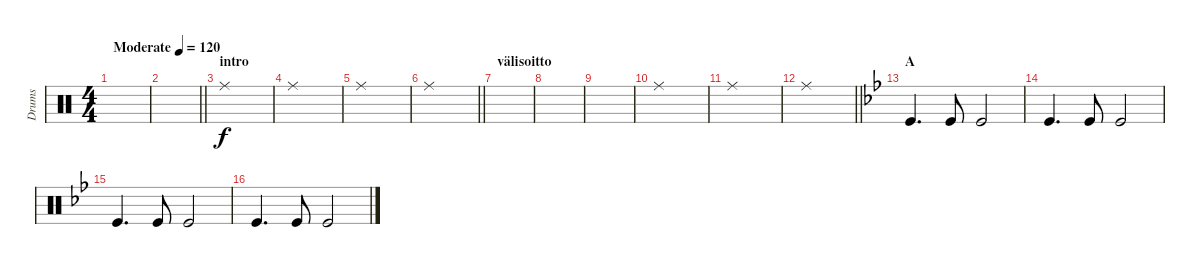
\track ("Drums" "Drums") {instrument percussion}
\staff {score}
\articulation defaults
\ts (4 4)
\tempo (120 "Moderate")
\clef neutral
\ks c
|
\barLineRight lightlight
|
\section ("" "intro")
\ks aminor "Ride (middle)".1
|
"Ride (middle)".1 |
"Ride (middle)".1 |
\barLineRight lightlight "Ride (middle)".1
|
\section ("" "välisoitto")
|
|
|
"Ride (middle)".1 |
"Ride (middle)".1 |
\barLineRight lightlight "Ride (middle)".1
|
\section ("" "A")
\ks gminor "Kick (hit)".4{d} "Kick (hit)".8 "Kick (hit)".2
|
"Kick (hit)".4{d} "Kick (hit)".8 "Kick (hit)".2 |
"Kick (hit)".4{d} "Kick (hit)".8 "Kick (hit)".2 |
"Kick (hit)".4{d} "Kick (hit)".8 "Kick (hit)".2
